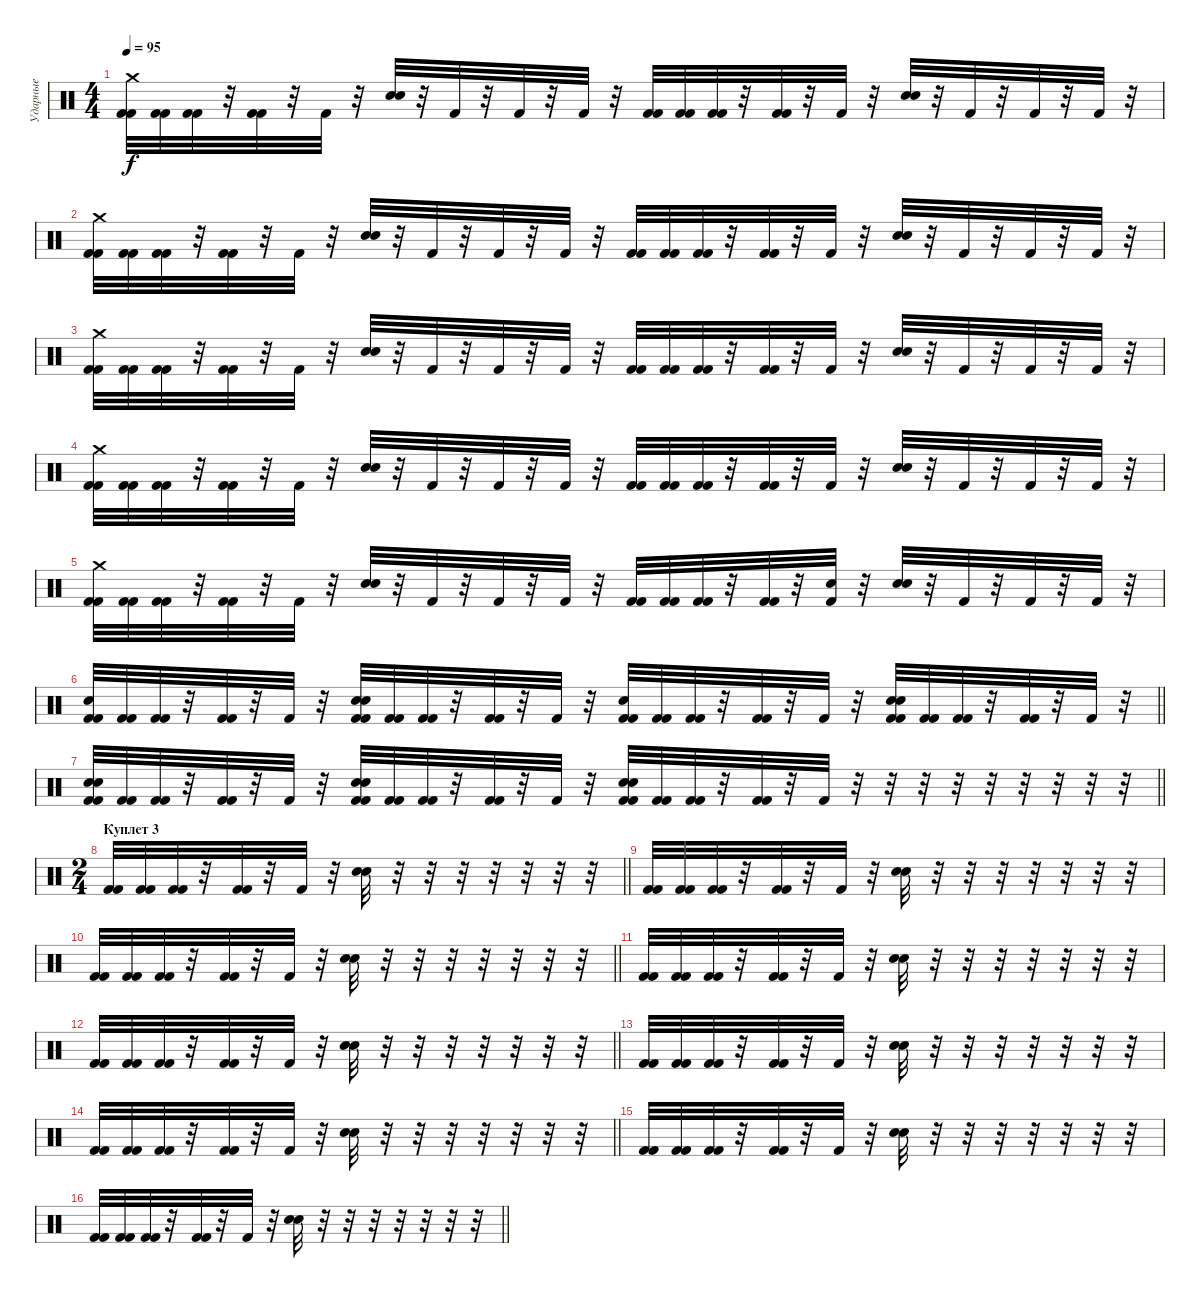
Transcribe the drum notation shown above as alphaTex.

\track ("Ударные" "Ударные") {instrument percussion}
\staff {score}
\articulation defaults
\ts (4 4)
\tempo 95
\clef neutral
\ks c
("Kick (hit) 2" "Kick (hit) 2" "Crash medium (hit)").32{dy f} ("Kick (hit) 2" "Kick (hit) 2").32 ("Kick (hit) 2" "Kick (hit) 2").32 r.32 ("Kick (hit) 2" "Kick (hit) 2").32 r.32 "Kick (hit) 2".32 r.32 ("Electric Snare (hit)" "Electric Snare (hit)").32 r.32 "Kick (hit) 2".32 r.32 "Kick (hit) 2".32 r.32 "Kick (hit) 2".32 r.32 ("Kick (hit) 2" "Kick (hit) 2").32 ("Kick (hit) 2" "Kick (hit) 2").32 ("Kick (hit) 2" "Kick (hit) 2").32 r.32 ("Kick (hit) 2" "Kick (hit) 2").32 r.32 "Kick (hit) 2".32 r.32 ("Electric Snare (hit)" "Electric Snare (hit)").32 r.32 "Kick (hit) 2".32 r.32 "Kick (hit) 2".32 r.32 "Kick (hit) 2".32 r.32 |
("Kick (hit) 2" "Kick (hit) 2" "Crash medium (hit)").32 ("Kick (hit) 2" "Kick (hit) 2").32 ("Kick (hit) 2" "Kick (hit) 2").32 r.32 ("Kick (hit) 2" "Kick (hit) 2").32 r.32 "Kick (hit) 2".32 r.32 ("Electric Snare (hit)" "Electric Snare (hit)").32 r.32 "Kick (hit) 2".32 r.32 "Kick (hit) 2".32 r.32 "Kick (hit) 2".32 r.32 ("Kick (hit) 2" "Kick (hit) 2").32 ("Kick (hit) 2" "Kick (hit) 2").32 ("Kick (hit) 2" "Kick (hit) 2").32 r.32 ("Kick (hit) 2" "Kick (hit) 2").32 r.32 "Kick (hit) 2".32 r.32 ("Electric Snare (hit)" "Electric Snare (hit)").32 r.32 "Kick (hit) 2".32 r.32 "Kick (hit) 2".32 r.32 "Kick (hit) 2".32 r.32 |
("Kick (hit) 2" "Kick (hit) 2" "Crash medium (hit)").32 ("Kick (hit) 2" "Kick (hit) 2").32 ("Kick (hit) 2" "Kick (hit) 2").32 r.32 ("Kick (hit) 2" "Kick (hit) 2").32 r.32 "Kick (hit) 2".32 r.32 ("Electric Snare (hit)" "Electric Snare (hit)").32 r.32 "Kick (hit) 2".32 r.32 "Kick (hit) 2".32 r.32 "Kick (hit) 2".32 r.32 ("Kick (hit) 2" "Kick (hit) 2").32 ("Kick (hit) 2" "Kick (hit) 2").32 ("Kick (hit) 2" "Kick (hit) 2").32 r.32 ("Kick (hit) 2" "Kick (hit) 2").32 r.32 "Kick (hit) 2".32 r.32 ("Electric Snare (hit)" "Electric Snare (hit)").32 r.32 "Kick (hit) 2".32 r.32 "Kick (hit) 2".32 r.32 "Kick (hit) 2".32 r.32 |
("Kick (hit) 2" "Kick (hit) 2" "Crash medium (hit)").32 ("Kick (hit) 2" "Kick (hit) 2").32 ("Kick (hit) 2" "Kick (hit) 2").32 r.32 ("Kick (hit) 2" "Kick (hit) 2").32 r.32 "Kick (hit) 2".32 r.32 ("Electric Snare (hit)" "Electric Snare (hit)").32 r.32 "Kick (hit) 2".32 r.32 "Kick (hit) 2".32 r.32 "Kick (hit) 2".32 r.32 ("Kick (hit) 2" "Kick (hit) 2").32 ("Kick (hit) 2" "Kick (hit) 2").32 ("Kick (hit) 2" "Kick (hit) 2").32 r.32 ("Kick (hit) 2" "Kick (hit) 2").32 r.32 "Kick (hit) 2".32 r.32 ("Electric Snare (hit)" "Electric Snare (hit)").32 r.32 "Kick (hit) 2".32 r.32 "Kick (hit) 2".32 r.32 "Kick (hit) 2".32 r.32 |
("Kick (hit) 2" "Kick (hit) 2" "Crash medium (hit)").32 ("Kick (hit) 2" "Kick (hit) 2").32 ("Kick (hit) 2" "Kick (hit) 2").32 r.32 ("Kick (hit) 2" "Kick (hit) 2").32 r.32 "Kick (hit) 2".32 r.32 ("Electric Snare (hit)" "Electric Snare (hit)").32 r.32 "Kick (hit) 2".32 r.32 "Kick (hit) 2".32 r.32 "Kick (hit) 2".32 r.32 ("Kick (hit) 2" "Kick (hit) 2").32 ("Kick (hit) 2" "Kick (hit) 2").32 ("Kick (hit) 2" "Kick (hit) 2").32 r.32 ("Kick (hit) 2" "Kick (hit) 2").32 r.32 ("Kick (hit) 2" "Electric Snare (hit)").32 r.32 ("Electric Snare (hit)" "Electric Snare (hit)").32 r.32 "Kick (hit) 2".32 r.32 "Kick (hit) 2".32 r.32 "Kick (hit) 2".32 r.32 |
\barLineRight lightlight
("Kick (hit) 2" "Kick (hit) 2" "Electric Snare (hit)").32 ("Kick (hit) 2" "Kick (hit) 2").32 ("Kick (hit) 2" "Kick (hit) 2").32 r.32 ("Kick (hit) 2" "Kick (hit) 2").32 r.32 "Kick (hit) 2".32 r.32 ("Kick (hit) 2" "Kick (hit) 2" "Electric Snare (hit)" "Electric Snare (hit)").32 ("Kick (hit) 2" "Kick (hit) 2").32 ("Kick (hit) 2" "Kick (hit) 2").32 r.32 ("Kick (hit) 2" "Kick (hit) 2").32 r.32 "Kick (hit) 2".32 r.32 ("Kick (hit) 2" "Kick (hit) 2" "Electric Snare (hit)").32 ("Kick (hit) 2" "Kick (hit) 2").32 ("Kick (hit) 2" "Kick (hit) 2").32 r.32 ("Kick (hit) 2" "Kick (hit) 2").32 r.32 "Kick (hit) 2".32 r.32 ("Kick (hit) 2" "Kick (hit) 2" "Electric Snare (hit)" "Electric Snare (hit)").32 ("Kick (hit) 2" "Kick (hit) 2").32 ("Kick (hit) 2" "Kick (hit) 2").32 r.32 ("Kick (hit) 2" "Kick (hit) 2").32 r.32 "Kick (hit) 2".32 r.32 |
\barLineRight lightlight
("Kick (hit) 2" "Kick (hit) 2" "Electric Snare (hit)" "Electric Snare (hit)").32 ("Kick (hit) 2" "Kick (hit) 2").32 ("Kick (hit) 2" "Kick (hit) 2").32 r.32 ("Kick (hit) 2" "Kick (hit) 2").32 r.32 "Kick (hit) 2".32 r.32 ("Kick (hit) 2" "Kick (hit) 2" "Electric Snare (hit)" "Electric Snare (hit)").32 ("Kick (hit) 2" "Kick (hit) 2").32 ("Kick (hit) 2" "Kick (hit) 2").32 r.32 ("Kick (hit) 2" "Kick (hit) 2").32 r.32 "Kick (hit) 2".32 r.32 ("Kick (hit) 2" "Kick (hit) 2" "Electric Snare (hit)" "Electric Snare (hit)").32 ("Kick (hit) 2" "Kick (hit) 2").32 ("Kick (hit) 2" "Kick (hit) 2").32 r.32 ("Kick (hit) 2" "Kick (hit) 2").32 r.32 "Kick (hit) 2".32 r.32 r.32 r.32 r.32 r.32 r.32 r.32 r.32 r.32 |
\ts (2 4)
\section ("" "Куплет 3")
\barLineRight lightlight
("Kick (hit) 2" "Kick (hit) 2").32 ("Kick (hit) 2" "Kick (hit) 2").32 ("Kick (hit) 2" "Kick (hit) 2").32 r.32 ("Kick (hit) 2" "Kick (hit) 2").32 r.32 "Kick (hit) 2".32 r.32 ("Electric Snare (hit)" "Electric Snare (hit)").32 r.32 r.32 r.32 r.32 r.32 r.32 r.32 |
("Kick (hit) 2" "Kick (hit) 2").32 ("Kick (hit) 2" "Kick (hit) 2").32 ("Kick (hit) 2" "Kick (hit) 2").32 r.32 ("Kick (hit) 2" "Kick (hit) 2").32 r.32 "Kick (hit) 2".32 r.32 ("Electric Snare (hit)" "Electric Snare (hit)").32 r.32 r.32 r.32 r.32 r.32 r.32 r.32 |
\barLineRight lightlight
("Kick (hit) 2" "Kick (hit) 2").32 ("Kick (hit) 2" "Kick (hit) 2").32 ("Kick (hit) 2" "Kick (hit) 2").32 r.32 ("Kick (hit) 2" "Kick (hit) 2").32 r.32 "Kick (hit) 2".32 r.32 ("Electric Snare (hit)" "Electric Snare (hit)").32 r.32 r.32 r.32 r.32 r.32 r.32 r.32 |
("Kick (hit) 2" "Kick (hit) 2").32 ("Kick (hit) 2" "Kick (hit) 2").32 ("Kick (hit) 2" "Kick (hit) 2").32 r.32 ("Kick (hit) 2" "Kick (hit) 2").32 r.32 "Kick (hit) 2".32 r.32 ("Electric Snare (hit)" "Electric Snare (hit)").32 r.32 r.32 r.32 r.32 r.32 r.32 r.32 |
\barLineRight lightlight
("Kick (hit) 2" "Kick (hit) 2").32 ("Kick (hit) 2" "Kick (hit) 2").32 ("Kick (hit) 2" "Kick (hit) 2").32 r.32 ("Kick (hit) 2" "Kick (hit) 2").32 r.32 "Kick (hit) 2".32 r.32 ("Electric Snare (hit)" "Electric Snare (hit)").32 r.32 r.32 r.32 r.32 r.32 r.32 r.32 |
("Kick (hit) 2" "Kick (hit) 2").32 ("Kick (hit) 2" "Kick (hit) 2").32 ("Kick (hit) 2" "Kick (hit) 2").32 r.32 ("Kick (hit) 2" "Kick (hit) 2").32 r.32 "Kick (hit) 2".32 r.32 ("Electric Snare (hit)" "Electric Snare (hit)").32 r.32 r.32 r.32 r.32 r.32 r.32 r.32 |
\barLineRight lightlight
("Kick (hit) 2" "Kick (hit) 2").32 ("Kick (hit) 2" "Kick (hit) 2").32 ("Kick (hit) 2" "Kick (hit) 2").32 r.32 ("Kick (hit) 2" "Kick (hit) 2").32 r.32 "Kick (hit) 2".32 r.32 ("Electric Snare (hit)" "Electric Snare (hit)").32 r.32 r.32 r.32 r.32 r.32 r.32 r.32 |
("Kick (hit) 2" "Kick (hit) 2").32 ("Kick (hit) 2" "Kick (hit) 2").32 ("Kick (hit) 2" "Kick (hit) 2").32 r.32 ("Kick (hit) 2" "Kick (hit) 2").32 r.32 "Kick (hit) 2".32 r.32 ("Electric Snare (hit)" "Electric Snare (hit)").32 r.32 r.32 r.32 r.32 r.32 r.32 r.32 |
\barLineRight lightlight
("Kick (hit) 2" "Kick (hit) 2").32 ("Kick (hit) 2" "Kick (hit) 2").32 ("Kick (hit) 2" "Kick (hit) 2").32 r.32 ("Kick (hit) 2" "Kick (hit) 2").32 r.32 "Kick (hit) 2".32 r.32 ("Electric Snare (hit)" "Electric Snare (hit)").32 r.32 r.32 r.32 r.32 r.32 r.32 r.32
